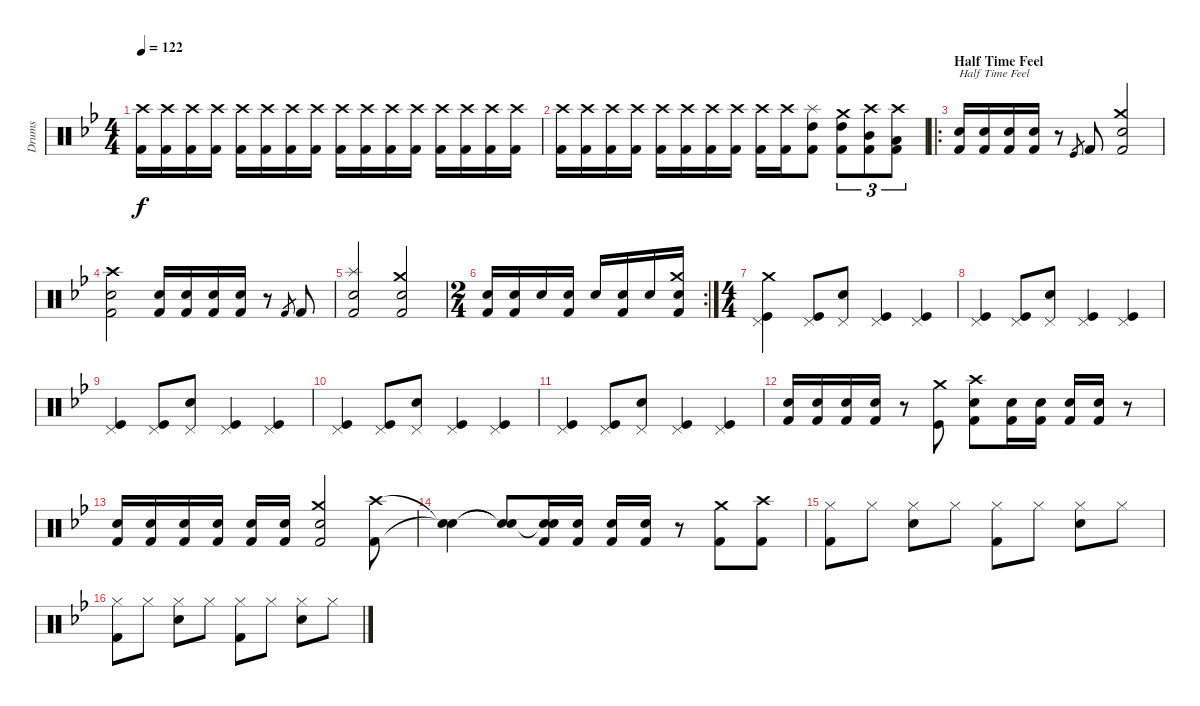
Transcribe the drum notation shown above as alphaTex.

\track ("Drums" "Drums") {instrument percussion}
\staff {score}
\articulation defaults
\ts (4 4)
\tempo 122
\clef neutral
\ks bb
("Crash high (hit)" "Kick (hit) 2").16{dy f volume 0} ("Crash high (hit)" "Kick (hit) 2").16{volume 8} ("Crash high (hit)" "Kick (hit) 2").16 ("Crash high (hit)" "Kick (hit) 2").16 ("Crash high (hit)" "Kick (hit) 2").16 ("Crash high (hit)" "Kick (hit) 2").16 ("Crash high (hit)" "Kick (hit) 2").16 ("Crash high (hit)" "Kick (hit) 2").16 ("Crash high (hit)" "Kick (hit) 2").16 ("Crash high (hit)" "Kick (hit) 2").16 ("Crash high (hit)" "Kick (hit) 2").16 ("Crash high (hit)" "Kick (hit) 2").16{volume 14} ("Crash high (hit)" "Kick (hit) 2").16 ("Crash high (hit)" "Kick (hit) 2").16 ("Crash high (hit)" "Kick (hit) 2").16 ("Crash high (hit)" "Kick (hit) 2").16 |
("Crash high (hit)" "Kick (hit) 2").16 ("Crash high (hit)" "Kick (hit) 2").16 ("Crash high (hit)" "Kick (hit) 2").16 ("Crash high (hit)" "Kick (hit) 2").16 ("Crash high (hit)" "Kick (hit) 2").16 ("Crash high (hit)" "Kick (hit) 2").16{volume 15} ("Crash high (hit)" "Kick (hit) 2").16 ("Crash high (hit)" "Kick (hit) 2").16 ("Crash high (hit)" "Kick (hit) 2").16 ("Crash high (hit)" "Kick (hit) 2").16 ("Splash (hit)" "High Tom (hit)" "Kick (hit) 2").8 ("Crash medium (hit)" "High Tom (hit)" "Kick (hit) 2").8{tu (3 2)} ("Crash high (hit)" "Mid Tom (hit)" "Kick (hit) 2").8{tu (3 2)} ("Crash high (hit)" "Low Tom (hit)" "Kick (hit) 2").8{tu (3 2)} |
\ro
\section ("" "Half Time Feel")
("Electric Snare (hit)" "Kick (hit) 2").16{txt "Half Time Feel"} ("Electric Snare (hit)" "Kick (hit) 2").16 ("Electric Snare (hit)" "Kick (hit) 2").16 ("Electric Snare (hit)" "Kick (hit) 2").16 r.8 "Kick (hit)".8{gr} "Kick (hit) 2".8 ("Crash medium (hit)" "Electric Snare (hit)" "Kick (hit) 2").2 |
("Crash high (hit)" "Electric Snare (hit)" "Kick (hit) 2").2 ("Electric Snare (hit)" "Kick (hit) 2").16 ("Electric Snare (hit)" "Kick (hit) 2").16 ("Electric Snare (hit)" "Kick (hit) 2").16 ("Electric Snare (hit)" "Kick (hit) 2").16 r.8 "Kick (hit) 2".8{gr} "Kick (hit) 2".8 |
("Splash (hit)" "Electric Snare (hit)" "Kick (hit) 2").2 ("Crash medium (hit)" "Electric Snare (hit)" "Kick (hit) 2").2 |
\rc 2
\ts (2 4)
("Electric Snare (hit)" "Kick (hit) 2").16 ("Electric Snare (hit)" "Kick (hit) 2").16 "Electric Snare (hit)".16 ("Electric Snare (hit)" "Kick (hit) 2").16 "Electric Snare (hit)".16 ("Electric Snare (hit)" "Kick (hit) 2").16 "Electric Snare (hit)".16 ("Crash medium (hit)" "Electric Snare (hit)" "Kick (hit) 2").16 |
\ts (4 4)
("Pedal Hi-Hat (hit)" "Crash medium (hit)" "Kick (hit)").4 ("Pedal Hi-Hat (hit)" "Kick (hit)").8 ("Pedal Hi-Hat (hit)" "Electric Snare (hit)").8 ("Pedal Hi-Hat (hit)" "Kick (hit)").4 ("Pedal Hi-Hat (hit)" "Kick (hit)").4 |
("Pedal Hi-Hat (hit)" "Kick (hit)").4 ("Pedal Hi-Hat (hit)" "Kick (hit)").8 ("Pedal Hi-Hat (hit)" "Electric Snare (hit)").8 ("Pedal Hi-Hat (hit)" "Kick (hit)").4 ("Pedal Hi-Hat (hit)" "Kick (hit)").4 |
("Pedal Hi-Hat (hit)" "Kick (hit)").4 ("Pedal Hi-Hat (hit)" "Kick (hit)").8 ("Pedal Hi-Hat (hit)" "Electric Snare (hit)").8 ("Pedal Hi-Hat (hit)" "Kick (hit)").4 ("Pedal Hi-Hat (hit)" "Kick (hit)").4 |
("Pedal Hi-Hat (hit)" "Kick (hit)").4 ("Pedal Hi-Hat (hit)" "Kick (hit)").8 ("Pedal Hi-Hat (hit)" "Electric Snare (hit)").8 ("Pedal Hi-Hat (hit)" "Kick (hit)").4 ("Pedal Hi-Hat (hit)" "Kick (hit)").4 |
("Pedal Hi-Hat (hit)" "Kick (hit)").4 ("Pedal Hi-Hat (hit)" "Kick (hit)").8 ("Pedal Hi-Hat (hit)" "Electric Snare (hit)").8 ("Pedal Hi-Hat (hit)" "Kick (hit)").4 ("Pedal Hi-Hat (hit)" "Kick (hit)").4 |
("Electric Snare (hit)" "Kick (hit) 2").16 ("Electric Snare (hit)" "Kick (hit) 2").16 ("Electric Snare (hit)" "Kick (hit) 2").16 ("Electric Snare (hit)" "Kick (hit) 2").16 r.8 ("Crash medium (hit)" "Kick (hit)").8 ("Crash high (hit)" "Electric Snare (hit)" "Kick (hit) 2").8 ("Electric Snare (hit)" "Kick (hit) 2").16 ("Electric Snare (hit)" "Kick (hit) 2").16 ("Electric Snare (hit)" "Kick (hit) 2").16 ("Electric Snare (hit)" "Kick (hit) 2").16 r.8 |
("Electric Snare (hit)" "Kick (hit) 2").16 ("Electric Snare (hit)" "Kick (hit) 2").16 ("Electric Snare (hit)" "Kick (hit) 2").16 ("Electric Snare (hit)" "Kick (hit) 2").16 ("Electric Snare (hit)" "Kick (hit) 2").16 ("Electric Snare (hit)" "Kick (hit) 2").16 ("Crash medium (hit)" "Electric Snare (hit)" "Kick (hit) 2").2 ("Crash high (hit)" "Kick (hit) 2").8 |
("Snare (hit)"{t} "Snare (hit)"{t}).4 ("Snare (hit)"{t} "Snare (hit)"{t}).8 ("Snare (hit)"{t} "Electric Snare (hit)" "Kick (hit) 2").16 ("Electric Snare (hit)" "Kick (hit) 2").16 ("Electric Snare (hit)" "Kick (hit) 2").16 ("Electric Snare (hit)" "Kick (hit) 2").16 r.8 ("Crash medium (hit)" "Kick (hit) 2").8 ("Crash high (hit)" "Kick (hit) 2").8 |
("Hi-Hat (closed)" "Kick (hit) 2").8 "Hi-Hat (closed)".8 ("Hi-Hat (closed)" "Electric Snare (hit)").8 "Hi-Hat (closed)".8 ("Hi-Hat (closed)" "Kick (hit) 2").8 "Hi-Hat (closed)".8 ("Hi-Hat (closed)" "Electric Snare (hit)").8 "Hi-Hat (closed)".8 |
("Hi-Hat (closed)" "Kick (hit) 2").8 "Hi-Hat (closed)".8 ("Hi-Hat (closed)" "Electric Snare (hit)").8 "Hi-Hat (closed)".8 ("Hi-Hat (closed)" "Kick (hit) 2").8 "Hi-Hat (closed)".8 ("Hi-Hat (closed)" "Electric Snare (hit)").8 "Hi-Hat (closed)".8
